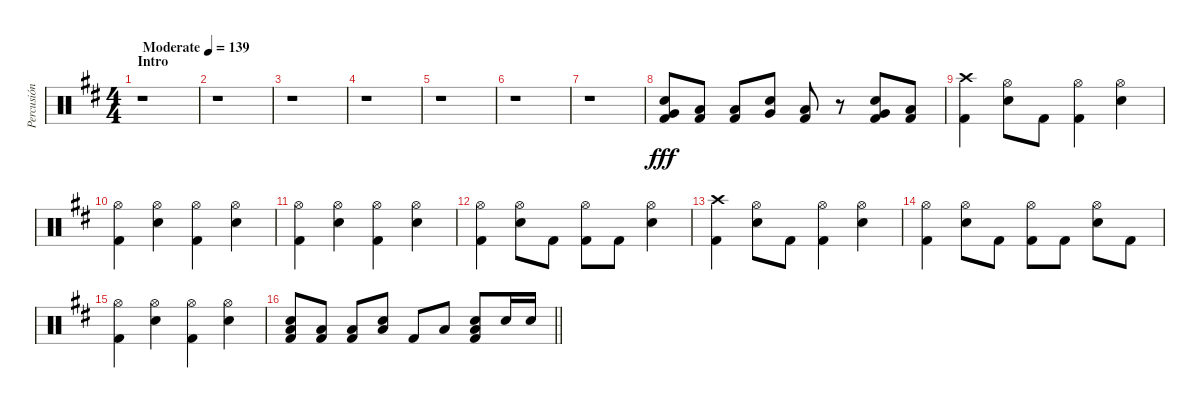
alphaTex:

\track ("Percusión" "Percusión") {instrument percussion}
\staff {score}
\articulation defaults
\ts (4 4)
\section ("" "Intro")
\tempo (139 "Moderate")
\clef neutral
\ks d
r.1{dy fff} |
r.1 |
r.1 |
r.1 |
r.1 |
r.1 |
r.1 |
("Very Low Tom (hit)" "Kick (hit) 2" "Snare (hit) 2").8 ("Kick (hit) 2" "Low Floor Tom (hit)").8 ("Kick (hit) 2" "Low Floor Tom (hit)").8 ("Very Low Tom (hit)" "Snare (hit) 2").8 ("Kick (hit) 2" "Low Floor Tom (hit)").8 r.8 ("Snare (hit) 2" "Kick (hit) 2" "Very Low Tom (hit)").8 ("Kick (hit) 2" "Low Floor Tom (hit)").8 |
("Crash high (hit)" "Kick (hit) 2").4 ("Hi-Hat (open)" "Electric Snare (hit)").8 "Kick (hit) 2".8 ("Hi-Hat (open)" "Kick (hit) 2").4 ("Hi-Hat (open)" "Electric Snare (hit)").4 |
("Hi-Hat (open)" "Kick (hit) 2").4 ("Hi-Hat (open)" "Electric Snare (hit)").4 ("Hi-Hat (open)" "Kick (hit) 2").4 ("Hi-Hat (open)" "Electric Snare (hit)").4 |
("Hi-Hat (open)" "Kick (hit) 2").4 ("Hi-Hat (open)" "Electric Snare (hit)").4 ("Hi-Hat (open)" "Kick (hit) 2").4 ("Hi-Hat (open)" "Electric Snare (hit)").4 |
("Hi-Hat (open)" "Kick (hit) 2").4 ("Hi-Hat (open)" "Electric Snare (hit)").8 "Kick (hit) 2".8 ("Hi-Hat (open)" "Kick (hit) 2").8 "Kick (hit) 2".8 ("Hi-Hat (open)" "Electric Snare (hit)").4 |
("Crash high (hit)" "Kick (hit) 2").4 ("Hi-Hat (open)" "Electric Snare (hit)").8 "Kick (hit) 2".8 ("Hi-Hat (open)" "Kick (hit) 2").4 ("Hi-Hat (open)" "Electric Snare (hit)").4 |
("Hi-Hat (open)" "Kick (hit) 2").4 ("Hi-Hat (open)" "Electric Snare (hit)").8 "Kick (hit) 2".8 ("Hi-Hat (open)" "Kick (hit) 2").8 "Kick (hit) 2".8 ("Hi-Hat (open)" "Electric Snare (hit)").8 "Kick (hit) 2".8 |
("Hi-Hat (open)" "Kick (hit) 2").4 ("Hi-Hat (open)" "Electric Snare (hit)").4 ("Hi-Hat (open)" "Kick (hit) 2").4 ("Hi-Hat (open)" "Electric Snare (hit)").4 |
\barLineRight lightlight
("Electric Snare (hit)" "Low Floor Tom (hit)" "Kick (hit) 2").8 ("Low Floor Tom (hit)" "Kick (hit) 2").8 ("Low Floor Tom (hit)" "Kick (hit) 2").8 ("Electric Snare (hit)" "Low Floor Tom (hit)").8 "Kick (hit) 2".8 "Low Floor Tom (hit)".8 ("Electric Snare (hit)" "Low Floor Tom (hit)" "Kick (hit) 2").8 "Electric Snare (hit)".16 "Electric Snare (hit)".16
